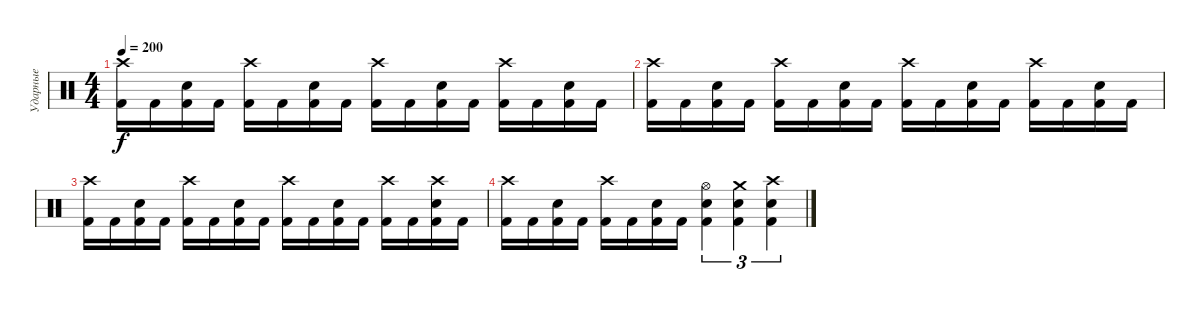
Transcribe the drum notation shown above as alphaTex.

\track ("Ударные" "Ударные") {instrument percussion}
\staff {score}
\articulation defaults
\ts (4 4)
\tempo 200
\clef neutral
\ks c
("Crash high (hit)" "Kick (hit) 2").16{dy f} "Kick (hit) 2".16 ("Electric Snare (hit)" "Kick (hit) 2").16 "Kick (hit) 2".16 ("Crash high (hit)" "Kick (hit) 2").16 "Kick (hit) 2".16 ("Electric Snare (hit)" "Kick (hit) 2").16 "Kick (hit) 2".16 ("Crash high (hit)" "Kick (hit) 2").16 "Kick (hit) 2".16 ("Electric Snare (hit)" "Kick (hit) 2").16 "Kick (hit) 2".16 ("Crash high (hit)" "Kick (hit) 2").16 "Kick (hit) 2".16 ("Electric Snare (hit)" "Kick (hit) 2").16 "Kick (hit) 2".16 |
("Crash high (hit)" "Kick (hit) 2").16 "Kick (hit) 2".16 ("Electric Snare (hit)" "Kick (hit) 2").16 "Kick (hit) 2".16 ("Crash high (hit)" "Kick (hit) 2").16 "Kick (hit) 2".16 ("Electric Snare (hit)" "Kick (hit) 2").16 "Kick (hit) 2".16 ("Crash high (hit)" "Kick (hit) 2").16 "Kick (hit) 2".16 ("Electric Snare (hit)" "Kick (hit) 2").16 "Kick (hit) 2".16 ("Crash high (hit)" "Kick (hit) 2").16 "Kick (hit) 2".16 ("Electric Snare (hit)" "Kick (hit) 2").16 "Kick (hit) 2".16 |
("Crash high (hit)" "Kick (hit) 2").16 "Kick (hit) 2".16 ("Electric Snare (hit)" "Kick (hit) 2").16 "Kick (hit) 2".16 ("Crash high (hit)" "Kick (hit) 2").16 "Kick (hit) 2".16 ("Electric Snare (hit)" "Kick (hit) 2").16 "Kick (hit) 2".16 ("Crash high (hit)" "Kick (hit) 2").16 "Kick (hit) 2".16 ("Electric Snare (hit)" "Kick (hit) 2").16 "Kick (hit) 2".16 ("Crash high (hit)" "Kick (hit) 2").16 "Kick (hit) 2".16 ("Crash high (hit)" "Electric Snare (hit)" "Kick (hit) 2").16 "Kick (hit) 2".16 |
("Crash high (hit)" "Kick (hit) 2").16 "Kick (hit) 2".16 ("Electric Snare (hit)" "Kick (hit) 2").16 "Kick (hit) 2".16 ("Crash high (hit)" "Kick (hit) 2").16 "Kick (hit) 2".16 ("Electric Snare (hit)" "Kick (hit) 2").16 "Kick (hit) 2".16 ("Hi-Hat (open)" "Electric Snare (hit)" "Kick (hit) 2").4{tu (3 2)} ("Crash medium (hit)" "Electric Snare (hit)" "Kick (hit) 2").4{tu (3 2)} ("Crash high (hit)" "Electric Snare (hit)" "Kick (hit) 2").4{tu (3 2)}
